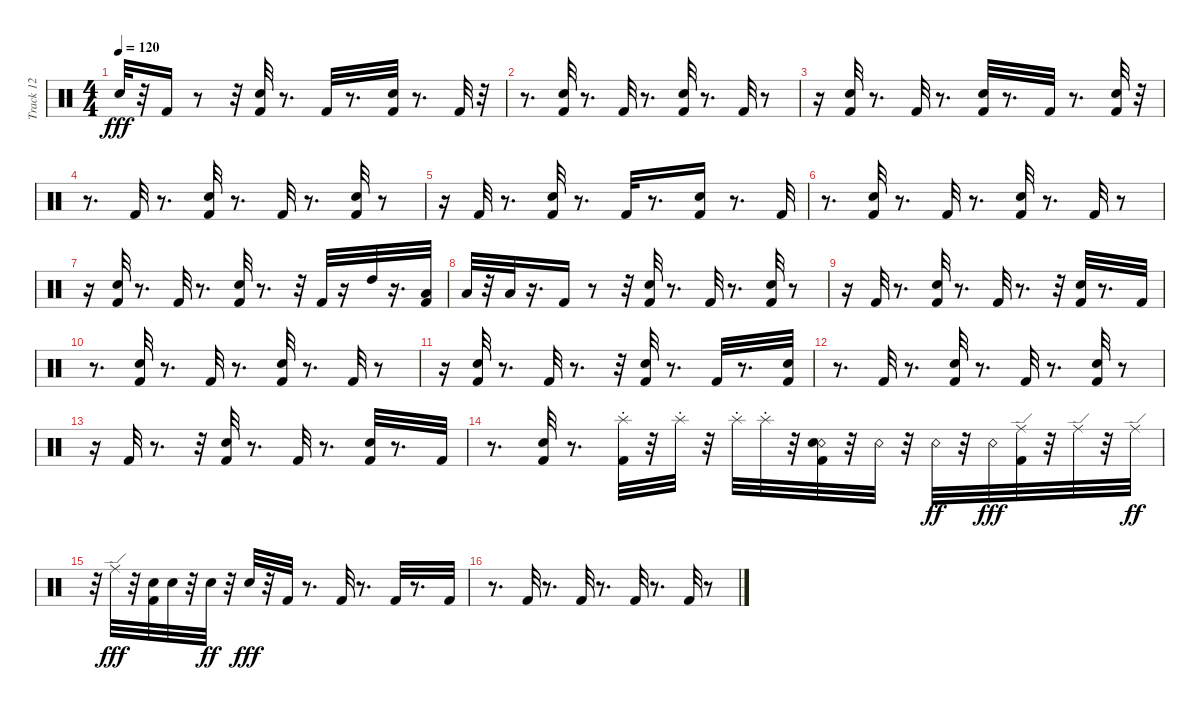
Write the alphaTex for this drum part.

\track ("Track 12" "Track 12") {instrument percussion}
\staff {score}
\articulation defaults
\ts (4 4)
\tempo 120
\clef neutral
\ks c "Snare (hit)".32{dy fff}
r.32 "Kick (hit) 2".16 r.8 r.32 ("Kick (hit) 2" "Electric Snare (hit)").32 r.8{d} "Kick (hit) 2".32 r.8{d} ("Kick (hit) 2" "Electric Snare (hit)").32 r.8{d} "Kick (hit) 2".32 r.32 |
r.8{d} ("Electric Snare (hit)" "Kick (hit) 2").32 r.8{d} "Kick (hit) 2".32 r.8{d} ("Kick (hit) 2" "Electric Snare (hit)").32 r.8{d} "Kick (hit) 2".32 r.8 |
r.16 ("Electric Snare (hit)" "Kick (hit) 2").32 r.8{d} "Kick (hit) 2".32 r.8{d} ("Electric Snare (hit)" "Kick (hit) 2").32 r.8{d} "Kick (hit) 2".32 r.8{d} ("Kick (hit) 2" "Electric Snare (hit)").32 r.32 |
r.8{d} "Kick (hit) 2".32 r.8{d} ("Electric Snare (hit)" "Kick (hit) 2").32 r.8{d} "Kick (hit) 2".32 r.8{d} ("Electric Snare (hit)" "Kick (hit) 2").32 r.8 |
r.16 "Kick (hit) 2".32 r.8{d} ("Electric Snare (hit)" "Kick (hit) 2").32 r.8{d} "Kick (hit) 2".32 r.8{d} ("Electric Snare (hit)" "Kick (hit) 2").16 r.8{d} "Kick (hit) 2".32 |
r.8{d} ("Electric Snare (hit)" "Kick (hit) 2").32 r.8{d} "Kick (hit) 2".32 r.8{d} ("Electric Snare (hit)" "Kick (hit) 2").32 r.8{d} "Kick (hit) 2".32 r.8 |
r.16 ("Electric Snare (hit)" "Kick (hit) 2").32 r.8{d} "Kick (hit) 2".32 r.8{d} ("Kick (hit) 2" "Electric Snare (hit)").32 r.8{d} r.32 "Kick (hit) 2".32 r.16 "High Tom (hit)".32 r.16{d} ("Low Tom (hit)" "Kick (hit) 2").32 |
"Low Tom (hit)".32 r.32 "Low Floor Tom (hit)".32 r.16{d} "Kick (hit) 2".16 r.8 r.32 ("Electric Snare (hit)" "Kick (hit) 2").32 r.8{d} "Kick (hit) 2".32 r.8{d} ("Electric Snare (hit)" "Kick (hit) 2").32 r.8 |
r.16 "Kick (hit) 2".32 r.8{d} ("Electric Snare (hit)" "Kick (hit) 2").32 r.8{d} "Kick (hit) 2".32 r.8{d} r.32 ("Electric Snare (hit)" "Kick (hit) 2").32 r.8{d} "Kick (hit) 2".32 |
r.8{d} ("Electric Snare (hit)" "Kick (hit) 2").32 r.8{d} "Kick (hit) 2".32 r.8{d} ("Kick (hit) 2" "Electric Snare (hit)").32 r.8{d} "Kick (hit) 2".32 r.8 |
r.16 ("Kick (hit) 2" "Electric Snare (hit)").32 r.8{d} "Kick (hit) 2".32 r.8{d} r.32 ("Electric Snare (hit)" "Kick (hit) 2").32 r.8{d} "Kick (hit) 2".32 r.8{d} ("Electric Snare (hit)" "Kick (hit) 2").32 |
r.8{d} "Kick (hit) 2".32 r.8{d} ("Kick (hit) 2" "Electric Snare (hit)").32 r.8{d} "Kick (hit) 2".32 r.8{d} ("Kick (hit) 2" "Electric Snare (hit)").32 r.8 |
r.16 "Kick (hit) 2".32 r.8{d} r.32 ("Electric Snare (hit)" "Kick (hit) 2").32 r.8{d} "Kick (hit) 2".32 r.8{d} ("Electric Snare (hit)" "Kick (hit) 2").32 r.8{d} "Kick (hit) 2".32 |
r.8{d} ("Electric Snare (hit)" "Kick (hit) 2").32 r.8{d} ("Splash (choke)" "Kick (hit) 2").32 r.32 "Splash (choke)".32 r.32 "Splash (choke)".32 "Splash (choke)".32 r.32 ("Snare (rim shot)" "Kick (hit) 2" "Electric Snare (hit)").32 r.32 "Snare (rim shot)".32 r.32 "Snare (rim shot)".32{dy ff} r.32 "Snare (rim shot)".32{dy fff} ("Ride (edge)" "Kick (hit) 2").32 r.32 "Ride (edge)".32 r.32 "Ride (edge)".32{dy ff} |
r.32 "Ride (edge)".32{dy fff} r.32 ("Snare (hit)" "Kick (hit) 2").32 "Snare (hit)".32 r.32 "Snare (hit)".32{dy ff} r.32 "Snare (hit)".32{dy fff} r.32 "Kick (hit) 2".32 r.8{d} "Kick (hit) 2".32 r.8{d} "Kick (hit) 2".32 r.8{d} "Kick (hit) 2".32 |
r.8{d} "Kick (hit) 2".32 r.8{d} "Kick (hit) 2".32 r.8{d} "Kick (hit) 2".32 r.8{d} "Kick (hit) 2".32 r.8
